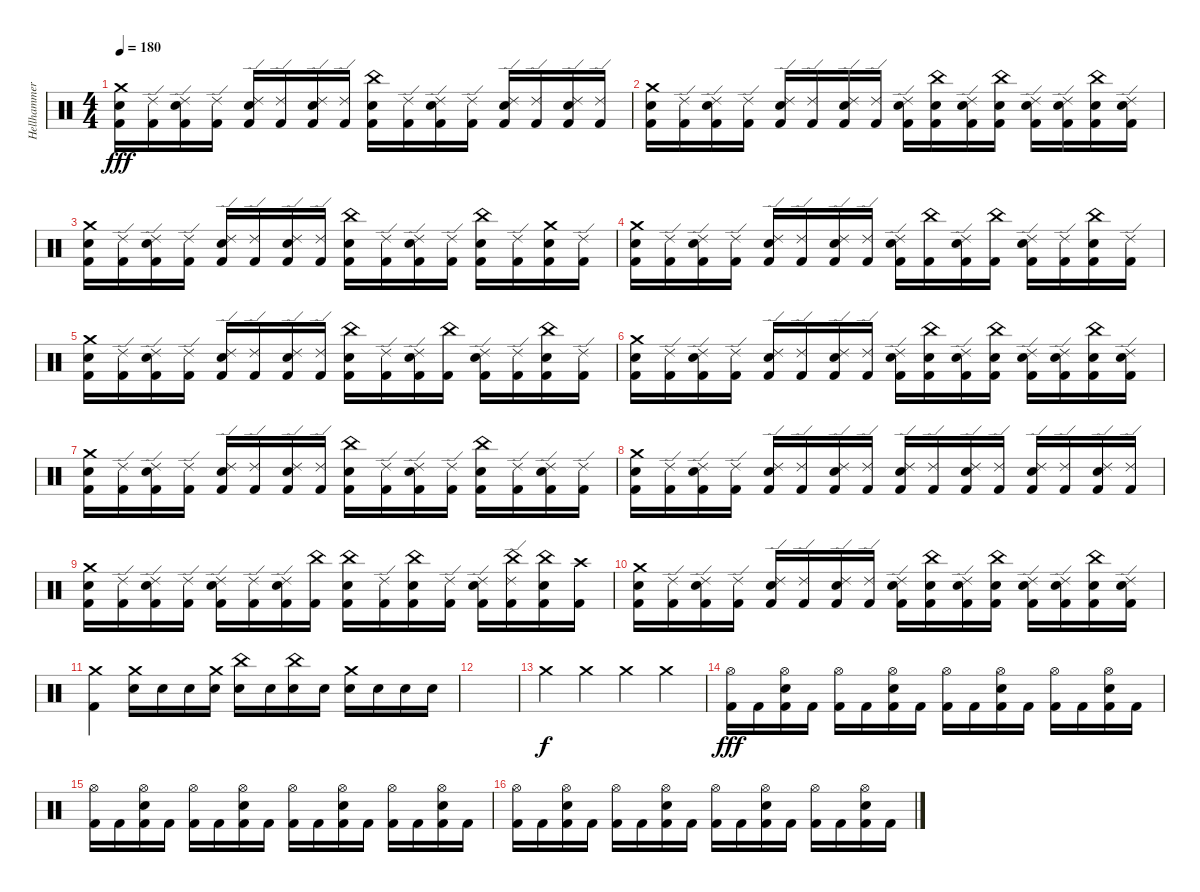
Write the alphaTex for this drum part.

\track ("Hellhammer (Drums)" "Hellhammer") {instrument percussion}
\staff {score}
\articulation defaults
\ts (4 4)
\tempo 180
\clef neutral
\ks c
("Crash medium (hit)" "Electric Snare (hit)" "Kick (hit) 2").16{dy fff} ("Ride (edge) 2" "Kick (hit) 2").16 ("Ride (edge) 2" "Electric Snare (hit)" "Kick (hit) 2").16 ("Ride (edge) 2" "Kick (hit) 2").16 ("Ride (edge) 2" "Electric Snare (hit)" "Kick (hit) 2").16 ("Ride (edge) 2" "Kick (hit) 2").16 ("Ride (edge) 2" "Electric Snare (hit)" "Kick (hit) 2").16 ("Ride (edge) 2" "Kick (hit) 2").16 ("China (hit)" "Electric Snare (hit)" "Kick (hit) 2").16 ("Ride (edge) 2" "Kick (hit) 2").16 ("Ride (edge) 2" "Electric Snare (hit)" "Kick (hit) 2").16 ("Ride (edge) 2" "Kick (hit) 2").16 ("Ride (edge) 2" "Electric Snare (hit)" "Kick (hit) 2").16 ("Ride (edge) 2" "Kick (hit) 2").16 ("Ride (edge) 2" "Electric Snare (hit)" "Kick (hit) 2").16 ("Ride (edge) 2" "Kick (hit) 2").16 |
("Crash medium (hit)" "Electric Snare (hit)" "Kick (hit) 2").16 ("Ride (edge) 2" "Kick (hit) 2").16 ("Ride (edge) 2" "Electric Snare (hit)" "Kick (hit) 2").16 ("Ride (edge) 2" "Kick (hit) 2").16 ("Ride (edge) 2" "Electric Snare (hit)" "Kick (hit) 2").16 ("Ride (edge) 2" "Kick (hit) 2").16 ("Ride (edge) 2" "Electric Snare (hit)" "Kick (hit) 2").16 ("Ride (edge) 2" "Kick (hit) 2").16 ("Ride (edge) 2" "Electric Snare (hit)" "Kick (hit) 2").16 ("China (hit)" "Electric Snare (hit)" "Kick (hit) 2").16 ("Ride (edge) 2" "Electric Snare (hit)" "Kick (hit) 2").16 ("China (hit)" "Electric Snare (hit)" "Kick (hit) 2").16 ("Ride (edge) 2" "Electric Snare (hit)" "Kick (hit) 2").16 ("Ride (edge) 2" "Electric Snare (hit)" "Kick (hit) 2").16 ("China (hit)" "Electric Snare (hit)" "Kick (hit) 2").16 ("Ride (edge) 2" "Electric Snare (hit)" "Kick (hit) 2").16 |
("Crash medium (hit)" "Electric Snare (hit)" "Kick (hit) 2").16 ("Ride (edge) 2" "Kick (hit) 2").16 ("Ride (edge) 2" "Electric Snare (hit)" "Kick (hit) 2").16 ("Ride (edge) 2" "Kick (hit) 2").16 ("Ride (edge) 2" "Electric Snare (hit)" "Kick (hit) 2").16 ("Ride (edge) 2" "Kick (hit) 2").16 ("Ride (edge) 2" "Electric Snare (hit)" "Kick (hit) 2").16 ("Ride (edge) 2" "Kick (hit) 2").16 ("China (hit)" "Electric Snare (hit)" "Kick (hit) 2").16 ("Ride (edge) 2" "Kick (hit) 2").16 ("Ride (edge) 2" "Electric Snare (hit)" "Kick (hit) 2").16 ("Ride (edge) 2" "Kick (hit) 2").16 ("China (hit)" "Electric Snare (hit)" "Kick (hit) 2").16 ("Ride (edge) 2" "Kick (hit) 2").16 ("Crash medium (hit)" "Electric Snare (hit)" "Kick (hit) 2").16 ("Ride (edge) 2" "Kick (hit) 2").16 |
("Crash medium (hit)" "Electric Snare (hit)" "Kick (hit) 2").16 ("Ride (edge) 2" "Kick (hit) 2").16 ("Ride (edge) 2" "Electric Snare (hit)" "Kick (hit) 2").16 ("Ride (edge) 2" "Kick (hit) 2").16 ("Ride (edge) 2" "Electric Snare (hit)" "Kick (hit) 2").16 ("Ride (edge) 2" "Kick (hit) 2").16 ("Ride (edge) 2" "Electric Snare (hit)" "Kick (hit) 2").16 ("Ride (edge) 2" "Kick (hit) 2").16 ("Ride (edge) 2" "Electric Snare (hit)" "Kick (hit) 2").16 ("China (hit)" "Kick (hit) 2").16 ("Ride (edge) 2" "Electric Snare (hit)" "Kick (hit) 2").16 ("China (hit)" "Kick (hit) 2").16 ("Ride (edge) 2" "Electric Snare (hit)" "Kick (hit) 2").16 ("Ride (edge) 2" "Kick (hit) 2").16 ("China (hit)" "Electric Snare (hit)" "Kick (hit) 2").16 ("Ride (edge) 2" "Kick (hit) 2").16 |
("Crash medium (hit)" "Electric Snare (hit)" "Kick (hit) 2").16 ("Ride (edge) 2" "Kick (hit) 2").16 ("Ride (edge) 2" "Electric Snare (hit)" "Kick (hit) 2").16 ("Ride (edge) 2" "Kick (hit) 2").16 ("Ride (edge) 2" "Electric Snare (hit)" "Kick (hit) 2").16 ("Ride (edge) 2" "Kick (hit) 2").16 ("Ride (edge) 2" "Electric Snare (hit)" "Kick (hit) 2").16 ("Ride (edge) 2" "Kick (hit) 2").16 ("China (hit)" "Electric Snare (hit)" "Kick (hit) 2").16 ("Ride (edge) 2" "Kick (hit) 2").16 ("Ride (edge) 2" "Electric Snare (hit)" "Kick (hit) 2").16 ("China (hit)" "Kick (hit) 2").16 ("Ride (edge) 2" "Electric Snare (hit)" "Kick (hit) 2").16 ("Ride (edge) 2" "Kick (hit) 2").16 ("China (hit)" "Electric Snare (hit)" "Kick (hit) 2").16 ("Ride (edge) 2" "Kick (hit) 2").16 |
("Crash medium (hit)" "Electric Snare (hit)" "Kick (hit) 2").16 ("Ride (edge) 2" "Kick (hit) 2").16 ("Ride (edge) 2" "Electric Snare (hit)" "Kick (hit) 2").16 ("Ride (edge) 2" "Kick (hit) 2").16 ("Ride (edge) 2" "Electric Snare (hit)" "Kick (hit) 2").16 ("Ride (edge) 2" "Kick (hit) 2").16 ("Ride (edge) 2" "Electric Snare (hit)" "Kick (hit) 2").16 ("Ride (edge) 2" "Kick (hit) 2").16 ("Ride (edge) 2" "Electric Snare (hit)" "Kick (hit) 2").16 ("China (hit)" "Electric Snare (hit)" "Kick (hit) 2").16 ("Ride (edge) 2" "Electric Snare (hit)" "Kick (hit) 2").16 ("China (hit)" "Electric Snare (hit)" "Kick (hit) 2").16 ("Ride (edge) 2" "Electric Snare (hit)" "Kick (hit) 2").16 ("Ride (edge) 2" "Electric Snare (hit)" "Kick (hit) 2").16 ("China (hit)" "Electric Snare (hit)" "Kick (hit) 2").16 ("Ride (edge) 2" "Electric Snare (hit)" "Kick (hit) 2").16 |
("Crash medium (hit)" "Electric Snare (hit)" "Kick (hit) 2").16 ("Ride (edge) 2" "Kick (hit) 2").16 ("Ride (edge) 2" "Electric Snare (hit)" "Kick (hit) 2").16 ("Ride (edge) 2" "Kick (hit) 2").16 ("Ride (edge) 2" "Electric Snare (hit)" "Kick (hit) 2").16 ("Ride (edge) 2" "Kick (hit) 2").16 ("Ride (edge) 2" "Electric Snare (hit)" "Kick (hit) 2").16 ("Ride (edge) 2" "Kick (hit) 2").16 ("China (hit)" "Electric Snare (hit)" "Kick (hit) 2").16 ("Ride (edge) 2" "Kick (hit) 2").16 ("Ride (edge) 2" "Electric Snare (hit)" "Kick (hit) 2").16 ("Ride (edge) 2" "Kick (hit) 2").16 ("China (hit)" "Electric Snare (hit)" "Kick (hit) 2").16 ("Ride (edge) 2" "Kick (hit) 2").16 ("Ride (edge) 2" "Electric Snare (hit)" "Kick (hit) 2").16 ("Ride (edge) 2" "Kick (hit) 2").16 |
("Crash medium (hit)" "Electric Snare (hit)" "Kick (hit) 2").16 ("Ride (edge) 2" "Kick (hit) 2").16 ("Ride (edge) 2" "Electric Snare (hit)" "Kick (hit) 2").16 ("Ride (edge) 2" "Kick (hit) 2").16 ("Ride (edge) 2" "Electric Snare (hit)" "Kick (hit) 2").16 ("Ride (edge) 2" "Kick (hit) 2").16 ("Ride (edge) 2" "Electric Snare (hit)" "Kick (hit) 2").16 ("Ride (edge) 2" "Kick (hit) 2").16 ("Ride (edge) 2" "Electric Snare (hit)" "Kick (hit) 2").16 ("Ride (edge) 2" "Kick (hit) 2").16 ("Ride (edge) 2" "Electric Snare (hit)" "Kick (hit) 2").16 ("Ride (edge) 2" "Kick (hit) 2").16 ("Ride (edge) 2" "Electric Snare (hit)" "Kick (hit) 2").16 ("Ride (edge) 2" "Kick (hit) 2").16 ("Ride (edge) 2" "Electric Snare (hit)" "Kick (hit) 2").16 ("Ride (edge) 2" "Kick (hit) 2").16 |
("Crash medium (hit)" "Electric Snare (hit)" "Kick (hit) 2").16 ("Ride (edge) 2" "Kick (hit) 2").16 ("Ride (edge) 2" "Electric Snare (hit)" "Kick (hit) 2").16 ("Ride (edge) 2" "Kick (hit) 2").16 ("Ride (edge) 2" "Electric Snare (hit)" "Kick (hit) 2").16 ("Ride (edge) 2" "Kick (hit) 2").16 ("Ride (edge) 2" "Electric Snare (hit)" "Kick (hit) 2").16 ("China (hit)" "Kick (hit) 2").16 ("China (hit)" "Electric Snare (hit)" "Kick (hit) 2").16 ("Ride (edge) 2" "Kick (hit) 2").16 ("China (hit)" "Electric Snare (hit)" "Kick (hit) 2").16 ("Ride (edge) 2" "Kick (hit) 2").16 ("Ride (edge) 2" "Electric Snare (hit)" "Kick (hit) 2").16 ("Ride (edge) 2" "China (hit)" "Kick (hit) 2").16 ("China (hit)" "Electric Snare (hit)" "Kick (hit) 2").16 ("Crash high (hit)" "Kick (hit) 2").16 |
("Crash medium (hit)" "Electric Snare (hit)" "Kick (hit) 2").16 ("Ride (edge) 2" "Kick (hit) 2").16 ("Ride (edge) 2" "Electric Snare (hit)" "Kick (hit) 2").16 ("Ride (edge) 2" "Kick (hit) 2").16 ("Ride (edge) 2" "Electric Snare (hit)" "Kick (hit) 2").16 ("Ride (edge) 2" "Kick (hit) 2").16 ("Ride (edge) 2" "Electric Snare (hit)" "Kick (hit) 2").16 ("Ride (edge) 2" "Kick (hit) 2").16 ("Ride (edge) 2" "Electric Snare (hit)" "Kick (hit) 2").16 ("China (hit)" "Electric Snare (hit)" "Kick (hit) 2").16 ("Ride (edge) 2" "Electric Snare (hit)" "Kick (hit) 2").16 ("China (hit)" "Electric Snare (hit)" "Kick (hit) 2").16 ("Ride (edge) 2" "Electric Snare (hit)" "Kick (hit) 2").16 ("Ride (edge) 2" "Electric Snare (hit)" "Kick (hit) 2").16 ("China (hit)" "Electric Snare (hit)" "Kick (hit) 2").16 ("Ride (edge) 2" "Electric Snare (hit)" "Kick (hit) 2").16 |
("Crash medium (hit)" "Kick (hit) 2").4 ("Crash medium (hit)" "Electric Snare (hit)").16 "Electric Snare (hit)".16 "Electric Snare (hit)".16 ("Crash medium (hit)" "Electric Snare (hit)").16 ("China (hit)" "Electric Snare (hit)").16 "Electric Snare (hit)".16 ("China (hit)" "Electric Snare (hit)").16 "Electric Snare (hit)".16 ("Crash medium (hit)" "Electric Snare (hit)").16 "Electric Snare (hit)".16 "Electric Snare (hit)".16 "Electric Snare (hit)".16 |
|
"Crash medium (hit)".4{dy f} "Crash medium (hit)".4 "Crash medium (hit)".4 "Crash medium (hit)".4 |
("Hi-Hat (open)" "Kick (hit) 2").16{dy fff} "Kick (hit) 2".16 ("Hi-Hat (open)" "Electric Snare (hit)" "Kick (hit) 2").16 "Kick (hit) 2".16 ("Hi-Hat (open)" "Kick (hit) 2").16 "Kick (hit) 2".16 ("Hi-Hat (open)" "Electric Snare (hit)" "Kick (hit) 2").16 "Kick (hit) 2".16 ("Hi-Hat (open)" "Kick (hit) 2").16 "Kick (hit) 2".16 ("Hi-Hat (open)" "Electric Snare (hit)" "Kick (hit) 2").16 "Kick (hit) 2".16 ("Hi-Hat (open)" "Kick (hit) 2").16 "Kick (hit) 2".16 ("Hi-Hat (open)" "Electric Snare (hit)" "Kick (hit) 2").16 "Kick (hit) 2".16 |
("Hi-Hat (open)" "Kick (hit) 2").16 "Kick (hit) 2".16 ("Hi-Hat (open)" "Electric Snare (hit)" "Kick (hit) 2").16 "Kick (hit) 2".16 ("Hi-Hat (open)" "Kick (hit) 2").16 "Kick (hit) 2".16 ("Hi-Hat (open)" "Electric Snare (hit)" "Kick (hit) 2").16 "Kick (hit) 2".16 ("Hi-Hat (open)" "Kick (hit) 2").16 "Kick (hit) 2".16 ("Hi-Hat (open)" "Electric Snare (hit)" "Kick (hit) 2").16 "Kick (hit) 2".16 ("Hi-Hat (open)" "Kick (hit) 2").16 "Kick (hit) 2".16 ("Hi-Hat (open)" "Electric Snare (hit)" "Kick (hit) 2").16 "Kick (hit) 2".16 |
("Hi-Hat (open)" "Kick (hit) 2").16 "Kick (hit) 2".16 ("Hi-Hat (open)" "Electric Snare (hit)" "Kick (hit) 2").16 "Kick (hit) 2".16 ("Hi-Hat (open)" "Kick (hit) 2").16 "Kick (hit) 2".16 ("Hi-Hat (open)" "Electric Snare (hit)" "Kick (hit) 2").16 "Kick (hit) 2".16 ("Hi-Hat (open)" "Kick (hit) 2").16 "Kick (hit) 2".16 ("Hi-Hat (open)" "Electric Snare (hit)" "Kick (hit) 2").16 "Kick (hit) 2".16 ("Hi-Hat (open)" "Kick (hit) 2").16 "Kick (hit) 2".16 ("Hi-Hat (open)" "Electric Snare (hit)" "Kick (hit) 2").16 "Kick (hit) 2".16
